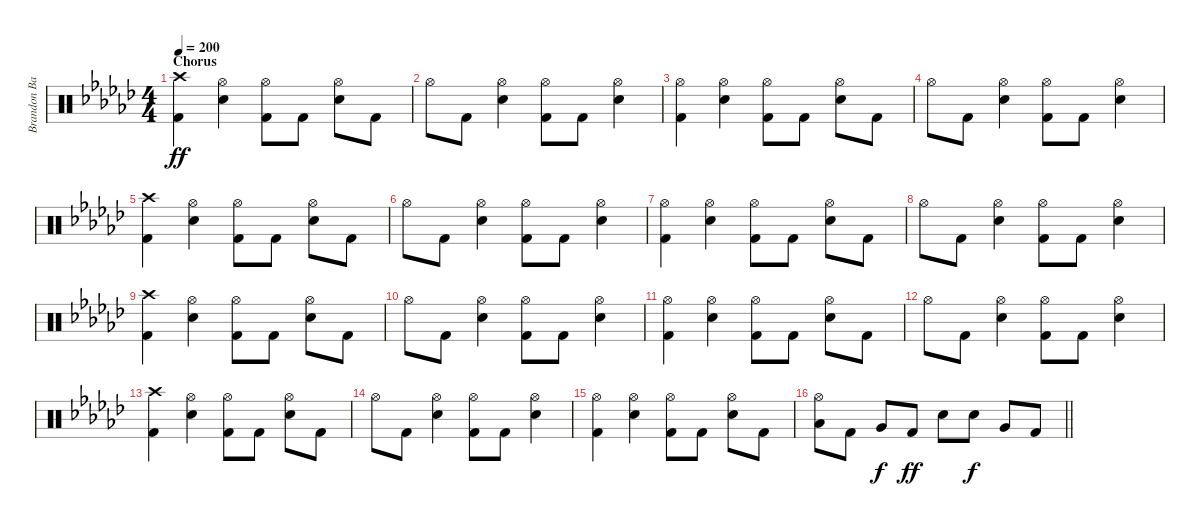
\track ("Brandon Barnes - Drums" "Brandon Ba") {instrument percussion}
\staff {score}
\articulation defaults
\ts (4 4)
\section ("" "Chorus")
\tempo 200
\clef neutral
\ks ebminor
("Kick (hit) 2" "Crash high (hit)").4{dy ff} ("Snare (hit) 2" "Hi-Hat (open)").4 ("Kick (hit) 2" "Hi-Hat (open)").8 "Kick (hit) 2".8 ("Snare (hit) 2" "Hi-Hat (open)").8 "Kick (hit) 2".8 |
"Hi-Hat (open)".8 "Kick (hit) 2".8 ("Snare (hit) 2" "Hi-Hat (open)").4 ("Kick (hit) 2" "Hi-Hat (open)").8 "Kick (hit) 2".8 ("Snare (hit) 2" "Hi-Hat (open)").4 |
("Kick (hit) 2" "Hi-Hat (open)").4 ("Snare (hit) 2" "Hi-Hat (open)").4 ("Kick (hit) 2" "Hi-Hat (open)").8 "Kick (hit) 2".8 ("Snare (hit) 2" "Hi-Hat (open)").8 "Kick (hit) 2".8 |
"Hi-Hat (open)".8 "Kick (hit) 2".8 ("Snare (hit) 2" "Hi-Hat (open)").4 ("Kick (hit) 2" "Hi-Hat (open)").8 "Kick (hit) 2".8 ("Snare (hit) 2" "Hi-Hat (open)").4 |
("Kick (hit) 2" "Crash high (hit)").4 ("Snare (hit) 2" "Hi-Hat (open)").4 ("Kick (hit) 2" "Hi-Hat (open)").8 "Kick (hit) 2".8 ("Snare (hit) 2" "Hi-Hat (open)").8 "Kick (hit) 2".8 |
"Hi-Hat (open)".8 "Kick (hit) 2".8 ("Snare (hit) 2" "Hi-Hat (open)").4 ("Kick (hit) 2" "Hi-Hat (open)").8 "Kick (hit) 2".8 ("Snare (hit) 2" "Hi-Hat (open)").4 |
("Kick (hit) 2" "Hi-Hat (open)").4 ("Snare (hit) 2" "Hi-Hat (open)").4 ("Kick (hit) 2" "Hi-Hat (open)").8 "Kick (hit) 2".8 ("Snare (hit) 2" "Hi-Hat (open)").8 "Kick (hit) 2".8 |
"Hi-Hat (open)".8 "Kick (hit) 2".8 ("Snare (hit) 2" "Hi-Hat (open)").4 ("Kick (hit) 2" "Hi-Hat (open)").8 "Kick (hit) 2".8 ("Snare (hit) 2" "Hi-Hat (open)").4 |
("Kick (hit) 2" "Crash high (hit)").4 ("Snare (hit) 2" "Hi-Hat (open)").4 ("Kick (hit) 2" "Hi-Hat (open)").8 "Kick (hit) 2".8 ("Snare (hit) 2" "Hi-Hat (open)").8 "Kick (hit) 2".8 |
"Hi-Hat (open)".8 "Kick (hit) 2".8 ("Snare (hit) 2" "Hi-Hat (open)").4 ("Kick (hit) 2" "Hi-Hat (open)").8 "Kick (hit) 2".8 ("Snare (hit) 2" "Hi-Hat (open)").4 |
("Kick (hit) 2" "Hi-Hat (open)").4 ("Snare (hit) 2" "Hi-Hat (open)").4 ("Kick (hit) 2" "Hi-Hat (open)").8 "Kick (hit) 2".8 ("Snare (hit) 2" "Hi-Hat (open)").8 "Kick (hit) 2".8 |
"Hi-Hat (open)".8 "Kick (hit) 2".8 ("Snare (hit) 2" "Hi-Hat (open)").4 ("Kick (hit) 2" "Hi-Hat (open)").8 "Kick (hit) 2".8 ("Snare (hit) 2" "Hi-Hat (open)").4 |
("Kick (hit) 2" "Crash high (hit)").4 ("Snare (hit) 2" "Hi-Hat (open)").4 ("Kick (hit) 2" "Hi-Hat (open)").8 "Kick (hit) 2".8 ("Snare (hit) 2" "Hi-Hat (open)").8 "Kick (hit) 2".8 |
"Hi-Hat (open)".8 "Kick (hit) 2".8 ("Snare (hit) 2" "Hi-Hat (open)").4 ("Kick (hit) 2" "Hi-Hat (open)").8 "Kick (hit) 2".8 ("Snare (hit) 2" "Hi-Hat (open)").4 |
("Kick (hit) 2" "Hi-Hat (open)").4 ("Snare (hit) 2" "Hi-Hat (open)").4 ("Kick (hit) 2" "Hi-Hat (open)").8 "Kick (hit) 2".8 ("Snare (hit) 2" "Hi-Hat (open)").8 "Kick (hit) 2".8 |
\barLineRight lightlight
("Hi-Hat (open)" "Low Tom (hit)").8 "Kick (hit) 2".8 "Very Low Tom (hit)".8{dy f} "Kick (hit) 2".8{dy ff} "Snare (hit) 2".8 "Snare (hit) 2".8{dy f} "Very Low Tom (hit)".8 "Kick (hit) 2".8
